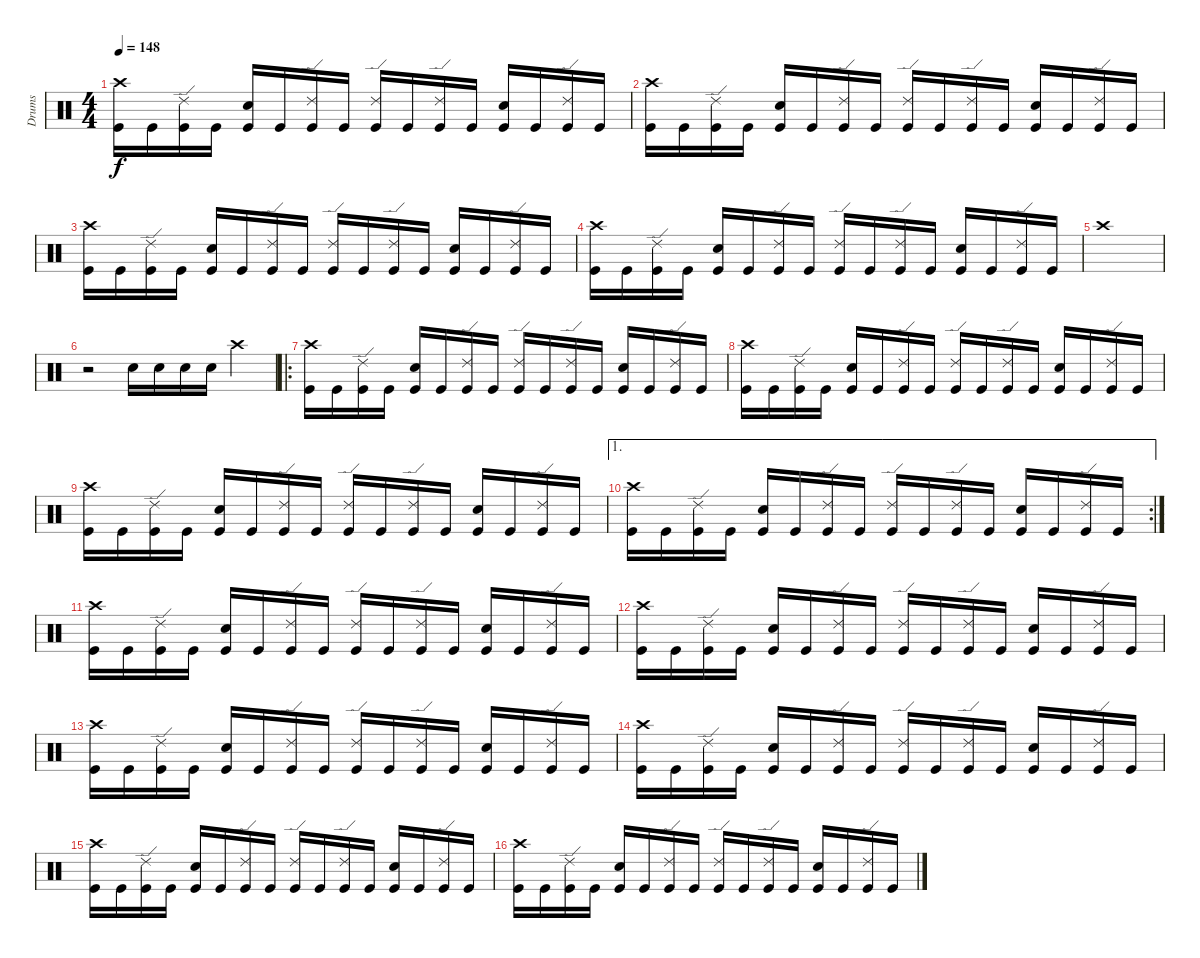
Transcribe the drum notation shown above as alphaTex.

\track ("Drums" "Drums") {instrument percussion}
\staff {score}
\articulation defaults
\ts (4 4)
\tempo 148
\clef neutral
\ks c
("Crash high (hit)" "Kick (hit)").16{dy f} "Kick (hit)".16 ("Ride (edge) 2" "Kick (hit)").16 "Kick (hit)".16 ("Snare (hit) 2" "Kick (hit)").16 "Kick (hit)".16 ("Ride (edge) 2" "Kick (hit)").16 "Kick (hit)".16 ("Ride (edge) 2" "Kick (hit)").16 "Kick (hit)".16 ("Ride (edge) 2" "Kick (hit)").16 "Kick (hit)".16 ("Snare (hit) 2" "Kick (hit)").16 "Kick (hit)".16 ("Ride (edge) 2" "Kick (hit)").16 "Kick (hit)".16 |
("Crash high (hit)" "Kick (hit)").16 "Kick (hit)".16 ("Ride (edge) 2" "Kick (hit)").16 "Kick (hit)".16 ("Snare (hit) 2" "Kick (hit)").16 "Kick (hit)".16 ("Ride (edge) 2" "Kick (hit)").16 "Kick (hit)".16 ("Ride (edge) 2" "Kick (hit)").16 "Kick (hit)".16 ("Ride (edge) 2" "Kick (hit)").16 "Kick (hit)".16 ("Snare (hit) 2" "Kick (hit)").16 "Kick (hit)".16 ("Ride (edge) 2" "Kick (hit)").16 "Kick (hit)".16 |
("Crash high (hit)" "Kick (hit)").16 "Kick (hit)".16 ("Ride (edge) 2" "Kick (hit)").16 "Kick (hit)".16 ("Snare (hit) 2" "Kick (hit)").16 "Kick (hit)".16 ("Ride (edge) 2" "Kick (hit)").16 "Kick (hit)".16 ("Ride (edge) 2" "Kick (hit)").16 "Kick (hit)".16 ("Ride (edge) 2" "Kick (hit)").16 "Kick (hit)".16 ("Snare (hit) 2" "Kick (hit)").16 "Kick (hit)".16 ("Ride (edge) 2" "Kick (hit)").16 "Kick (hit)".16 |
("Crash high (hit)" "Kick (hit)").16 "Kick (hit)".16 ("Ride (edge) 2" "Kick (hit)").16 "Kick (hit)".16 ("Snare (hit) 2" "Kick (hit)").16 "Kick (hit)".16 ("Ride (edge) 2" "Kick (hit)").16 "Kick (hit)".16 ("Ride (edge) 2" "Kick (hit)").16 "Kick (hit)".16 ("Ride (edge) 2" "Kick (hit)").16 "Kick (hit)".16 ("Snare (hit) 2" "Kick (hit)").16 "Kick (hit)".16 ("Ride (edge) 2" "Kick (hit)").16 "Kick (hit)".16 |
"Crash high (hit)".1 |
r.2 "Snare (hit) 2".16 "Snare (hit) 2".16 "Snare (hit) 2".16 "Snare (hit) 2".16 "Crash high (hit)".4 |
\ro
("Crash high (hit)" "Kick (hit)").16 "Kick (hit)".16 ("Ride (edge) 2" "Kick (hit)").16 "Kick (hit)".16 ("Snare (hit) 2" "Kick (hit)").16 "Kick (hit)".16 ("Ride (edge) 2" "Kick (hit)").16 "Kick (hit)".16 ("Ride (edge) 2" "Kick (hit)").16 "Kick (hit)".16 ("Ride (edge) 2" "Kick (hit)").16 "Kick (hit)".16 ("Snare (hit) 2" "Kick (hit)").16 "Kick (hit)".16 ("Ride (edge) 2" "Kick (hit)").16 "Kick (hit)".16 |
("Crash high (hit)" "Kick (hit)").16 "Kick (hit)".16 ("Ride (edge) 2" "Kick (hit)").16 "Kick (hit)".16 ("Snare (hit) 2" "Kick (hit)").16 "Kick (hit)".16 ("Ride (edge) 2" "Kick (hit)").16 "Kick (hit)".16 ("Ride (edge) 2" "Kick (hit)").16 "Kick (hit)".16 ("Ride (edge) 2" "Kick (hit)").16 "Kick (hit)".16 ("Snare (hit) 2" "Kick (hit)").16 "Kick (hit)".16 ("Ride (edge) 2" "Kick (hit)").16 "Kick (hit)".16 |
("Crash high (hit)" "Kick (hit)").16 "Kick (hit)".16 ("Ride (edge) 2" "Kick (hit)").16 "Kick (hit)".16 ("Snare (hit) 2" "Kick (hit)").16 "Kick (hit)".16 ("Ride (edge) 2" "Kick (hit)").16 "Kick (hit)".16 ("Ride (edge) 2" "Kick (hit)").16 "Kick (hit)".16 ("Ride (edge) 2" "Kick (hit)").16 "Kick (hit)".16 ("Snare (hit) 2" "Kick (hit)").16 "Kick (hit)".16 ("Ride (edge) 2" "Kick (hit)").16 "Kick (hit)".16 |
\ae 1
\rc 2
("Crash high (hit)" "Kick (hit)").16 "Kick (hit)".16 ("Ride (edge) 2" "Kick (hit)").16 "Kick (hit)".16 ("Snare (hit) 2" "Kick (hit)").16 "Kick (hit)".16 ("Ride (edge) 2" "Kick (hit)").16 "Kick (hit)".16 ("Ride (edge) 2" "Kick (hit)").16 "Kick (hit)".16 ("Ride (edge) 2" "Kick (hit)").16 "Kick (hit)".16 ("Snare (hit) 2" "Kick (hit)").16 "Kick (hit)".16 ("Ride (edge) 2" "Kick (hit)").16 "Kick (hit)".16 |
("Crash high (hit)" "Kick (hit)").16 "Kick (hit)".16 ("Ride (edge) 2" "Kick (hit)").16 "Kick (hit)".16 ("Snare (hit) 2" "Kick (hit)").16 "Kick (hit)".16 ("Ride (edge) 2" "Kick (hit)").16 "Kick (hit)".16 ("Ride (edge) 2" "Kick (hit)").16 "Kick (hit)".16 ("Ride (edge) 2" "Kick (hit)").16 "Kick (hit)".16 ("Snare (hit) 2" "Kick (hit)").16 "Kick (hit)".16 ("Ride (edge) 2" "Kick (hit)").16 "Kick (hit)".16 |
("Crash high (hit)" "Kick (hit)").16 "Kick (hit)".16 ("Ride (edge) 2" "Kick (hit)").16 "Kick (hit)".16 ("Snare (hit) 2" "Kick (hit)").16 "Kick (hit)".16 ("Ride (edge) 2" "Kick (hit)").16 "Kick (hit)".16 ("Ride (edge) 2" "Kick (hit)").16 "Kick (hit)".16 ("Ride (edge) 2" "Kick (hit)").16 "Kick (hit)".16 ("Snare (hit) 2" "Kick (hit)").16 "Kick (hit)".16 ("Ride (edge) 2" "Kick (hit)").16 "Kick (hit)".16 |
("Crash high (hit)" "Kick (hit)").16 "Kick (hit)".16 ("Ride (edge) 2" "Kick (hit)").16 "Kick (hit)".16 ("Snare (hit) 2" "Kick (hit)").16 "Kick (hit)".16 ("Ride (edge) 2" "Kick (hit)").16 "Kick (hit)".16 ("Ride (edge) 2" "Kick (hit)").16 "Kick (hit)".16 ("Ride (edge) 2" "Kick (hit)").16 "Kick (hit)".16 ("Snare (hit) 2" "Kick (hit)").16 "Kick (hit)".16 ("Ride (edge) 2" "Kick (hit)").16 "Kick (hit)".16 |
("Crash high (hit)" "Kick (hit)").16 "Kick (hit)".16 ("Ride (edge) 2" "Kick (hit)").16 "Kick (hit)".16 ("Snare (hit) 2" "Kick (hit)").16 "Kick (hit)".16 ("Ride (edge) 2" "Kick (hit)").16 "Kick (hit)".16 ("Ride (edge) 2" "Kick (hit)").16 "Kick (hit)".16 ("Ride (edge) 2" "Kick (hit)").16 "Kick (hit)".16 ("Snare (hit) 2" "Kick (hit)").16 "Kick (hit)".16 ("Ride (edge) 2" "Kick (hit)").16 "Kick (hit)".16 |
("Crash high (hit)" "Kick (hit)").16 "Kick (hit)".16 ("Ride (edge) 2" "Kick (hit)").16 "Kick (hit)".16 ("Snare (hit) 2" "Kick (hit)").16 "Kick (hit)".16 ("Ride (edge) 2" "Kick (hit)").16 "Kick (hit)".16 ("Ride (edge) 2" "Kick (hit)").16 "Kick (hit)".16 ("Ride (edge) 2" "Kick (hit)").16 "Kick (hit)".16 ("Snare (hit) 2" "Kick (hit)").16 "Kick (hit)".16 ("Ride (edge) 2" "Kick (hit)").16 "Kick (hit)".16 |
("Crash high (hit)" "Kick (hit)").16 "Kick (hit)".16 ("Ride (edge) 2" "Kick (hit)").16 "Kick (hit)".16 ("Snare (hit) 2" "Kick (hit)").16 "Kick (hit)".16 ("Ride (edge) 2" "Kick (hit)").16 "Kick (hit)".16 ("Ride (edge) 2" "Kick (hit)").16 "Kick (hit)".16 ("Ride (edge) 2" "Kick (hit)").16 "Kick (hit)".16 ("Snare (hit) 2" "Kick (hit)").16 "Kick (hit)".16 ("Ride (edge) 2" "Kick (hit)").16 "Kick (hit)".16
